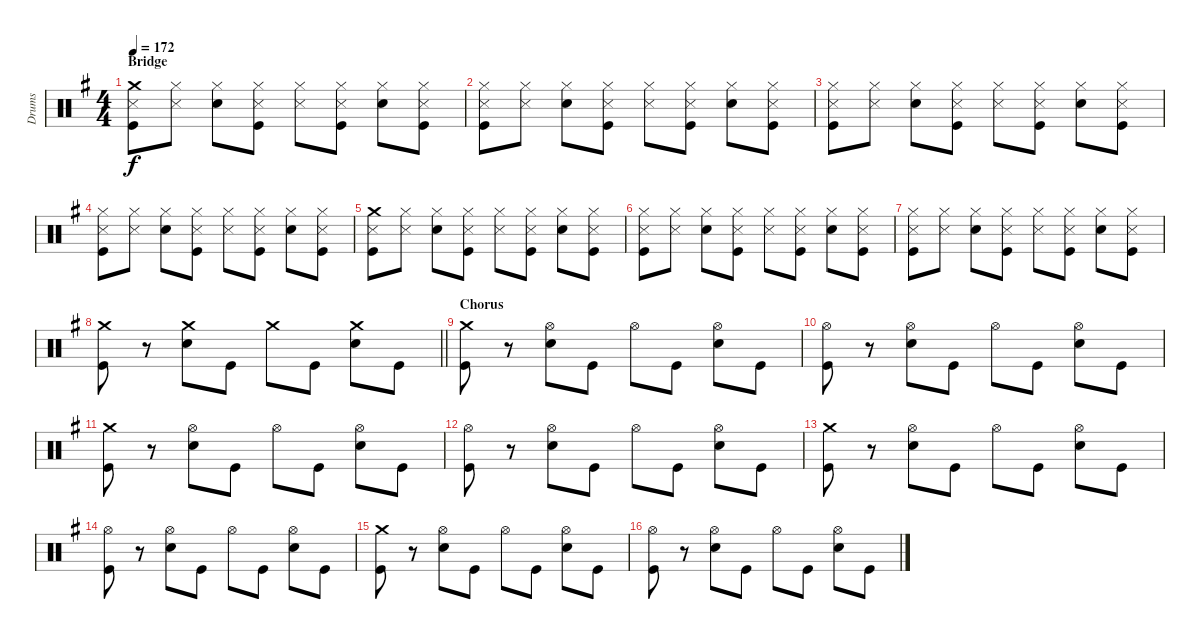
\track ("Drums" "Drums") {instrument percussion}
\staff {score}
\articulation defaults
\ts (4 4)
\section ("" "Bridge")
\tempo 172
\clef neutral
\ks g
("Crash medium (hit)" "Snare (side stick) 3" "Kick (hit)").8{dy f} ("Hi-Hat (closed)" "Snare (side stick) 3").8 ("Hi-Hat (closed)" "Snare (hit) 2").8 ("Hi-Hat (closed)" "Snare (side stick) 3" "Kick (hit)").8 ("Hi-Hat (closed)" "Snare (side stick) 3").8 ("Hi-Hat (closed)" "Snare (side stick) 3" "Kick (hit)").8 ("Hi-Hat (closed)" "Snare (hit) 2").8 ("Hi-Hat (closed)" "Snare (side stick) 3" "Kick (hit)").8 |
("Hi-Hat (closed)" "Snare (side stick) 3" "Kick (hit)").8 ("Hi-Hat (closed)" "Snare (side stick) 3").8 ("Hi-Hat (closed)" "Snare (hit) 2").8 ("Hi-Hat (closed)" "Snare (side stick) 3" "Kick (hit)").8 ("Hi-Hat (closed)" "Snare (side stick) 3").8 ("Hi-Hat (closed)" "Snare (side stick) 3" "Kick (hit)").8 ("Hi-Hat (closed)" "Snare (hit) 2").8 ("Hi-Hat (closed)" "Snare (side stick) 3" "Kick (hit)").8 |
("Hi-Hat (closed)" "Snare (side stick) 3" "Kick (hit)").8 ("Hi-Hat (closed)" "Snare (side stick) 3").8 ("Hi-Hat (closed)" "Snare (hit) 2").8 ("Hi-Hat (closed)" "Snare (side stick) 3" "Kick (hit)").8 ("Hi-Hat (closed)" "Snare (side stick) 3").8 ("Hi-Hat (closed)" "Snare (side stick) 3" "Kick (hit)").8 ("Hi-Hat (closed)" "Snare (hit) 2").8 ("Hi-Hat (closed)" "Snare (side stick) 3" "Kick (hit)").8 |
("Hi-Hat (closed)" "Snare (side stick) 3" "Kick (hit)").8 ("Hi-Hat (closed)" "Snare (side stick) 3").8 ("Hi-Hat (closed)" "Snare (hit) 2").8 ("Hi-Hat (closed)" "Snare (side stick) 3" "Kick (hit)").8 ("Hi-Hat (closed)" "Snare (side stick) 3").8 ("Hi-Hat (closed)" "Snare (side stick) 3" "Kick (hit)").8 ("Hi-Hat (closed)" "Snare (hit) 2").8 ("Hi-Hat (closed)" "Snare (side stick) 3" "Kick (hit)").8 |
("Crash medium (hit)" "Snare (side stick) 3" "Kick (hit)").8 ("Hi-Hat (closed)" "Snare (side stick) 3").8 ("Hi-Hat (closed)" "Snare (hit) 2").8 ("Hi-Hat (closed)" "Snare (side stick) 3" "Kick (hit)").8 ("Hi-Hat (closed)" "Snare (side stick) 3").8 ("Hi-Hat (closed)" "Snare (side stick) 3" "Kick (hit)").8 ("Hi-Hat (closed)" "Snare (hit) 2").8 ("Hi-Hat (closed)" "Snare (side stick) 3" "Kick (hit)").8 |
("Hi-Hat (closed)" "Snare (side stick) 3" "Kick (hit)").8 ("Hi-Hat (closed)" "Snare (side stick) 3").8 ("Hi-Hat (closed)" "Snare (hit) 2").8 ("Hi-Hat (closed)" "Snare (side stick) 3" "Kick (hit)").8 ("Hi-Hat (closed)" "Snare (side stick) 3").8 ("Hi-Hat (closed)" "Snare (side stick) 3" "Kick (hit)").8 ("Hi-Hat (closed)" "Snare (hit) 2").8 ("Hi-Hat (closed)" "Snare (side stick) 3" "Kick (hit)").8 |
("Hi-Hat (closed)" "Snare (side stick) 3" "Kick (hit)").8 ("Hi-Hat (closed)" "Snare (side stick) 3").8 ("Hi-Hat (closed)" "Snare (hit) 2").8 ("Hi-Hat (closed)" "Snare (side stick) 3" "Kick (hit)").8 ("Hi-Hat (closed)" "Snare (side stick) 3").8 ("Hi-Hat (closed)" "Snare (side stick) 3" "Kick (hit)").8 ("Hi-Hat (closed)" "Snare (hit) 2").8 ("Hi-Hat (closed)" "Snare (side stick) 3" "Kick (hit)").8 |
\barLineRight lightlight
("Crash medium (hit)" "Kick (hit)").8 r.8 ("Crash medium (hit)" "Snare (hit) 2").8 "Kick (hit)".8 "Crash medium (hit)".8 "Kick (hit)".8 ("Crash medium (hit)" "Snare (hit) 2").8 "Kick (hit)".8 |
\section ("" "Chorus")
("Crash medium (hit)" "Kick (hit)").8 r.8 ("Hi-Hat (open)" "Snare (hit) 2").8 "Kick (hit)".8 "Hi-Hat (open)".8 "Kick (hit)".8 ("Hi-Hat (open)" "Snare (hit) 2").8 "Kick (hit)".8 |
("Hi-Hat (open)" "Kick (hit)").8 r.8 ("Hi-Hat (open)" "Snare (hit) 2").8 "Kick (hit)".8 "Hi-Hat (open)".8 "Kick (hit)".8 ("Hi-Hat (open)" "Snare (hit) 2").8 "Kick (hit)".8 |
("Crash medium (hit)" "Kick (hit)").8 r.8 ("Hi-Hat (open)" "Snare (hit) 2").8 "Kick (hit)".8 "Hi-Hat (open)".8 "Kick (hit)".8 ("Hi-Hat (open)" "Snare (hit) 2").8 "Kick (hit)".8 |
("Hi-Hat (open)" "Kick (hit)").8 r.8 ("Hi-Hat (open)" "Snare (hit) 2").8 "Kick (hit)".8 "Hi-Hat (open)".8 "Kick (hit)".8 ("Hi-Hat (open)" "Snare (hit) 2").8 "Kick (hit)".8 |
("Crash medium (hit)" "Kick (hit)").8 r.8 ("Hi-Hat (open)" "Snare (hit) 2").8 "Kick (hit)".8 "Hi-Hat (open)".8 "Kick (hit)".8 ("Hi-Hat (open)" "Snare (hit) 2").8 "Kick (hit)".8 |
("Hi-Hat (open)" "Kick (hit)").8 r.8 ("Hi-Hat (open)" "Snare (hit) 2").8 "Kick (hit)".8 "Hi-Hat (open)".8 "Kick (hit)".8 ("Hi-Hat (open)" "Snare (hit) 2").8 "Kick (hit)".8 |
("Crash medium (hit)" "Kick (hit)").8 r.8 ("Hi-Hat (open)" "Snare (hit) 2").8 "Kick (hit)".8 "Hi-Hat (open)".8 "Kick (hit)".8 ("Hi-Hat (open)" "Snare (hit) 2").8 "Kick (hit)".8 |
("Hi-Hat (open)" "Kick (hit)").8 r.8 ("Hi-Hat (open)" "Snare (hit) 2").8 "Kick (hit)".8 "Hi-Hat (open)".8 "Kick (hit)".8 ("Hi-Hat (open)" "Snare (hit) 2").8 "Kick (hit)".8
